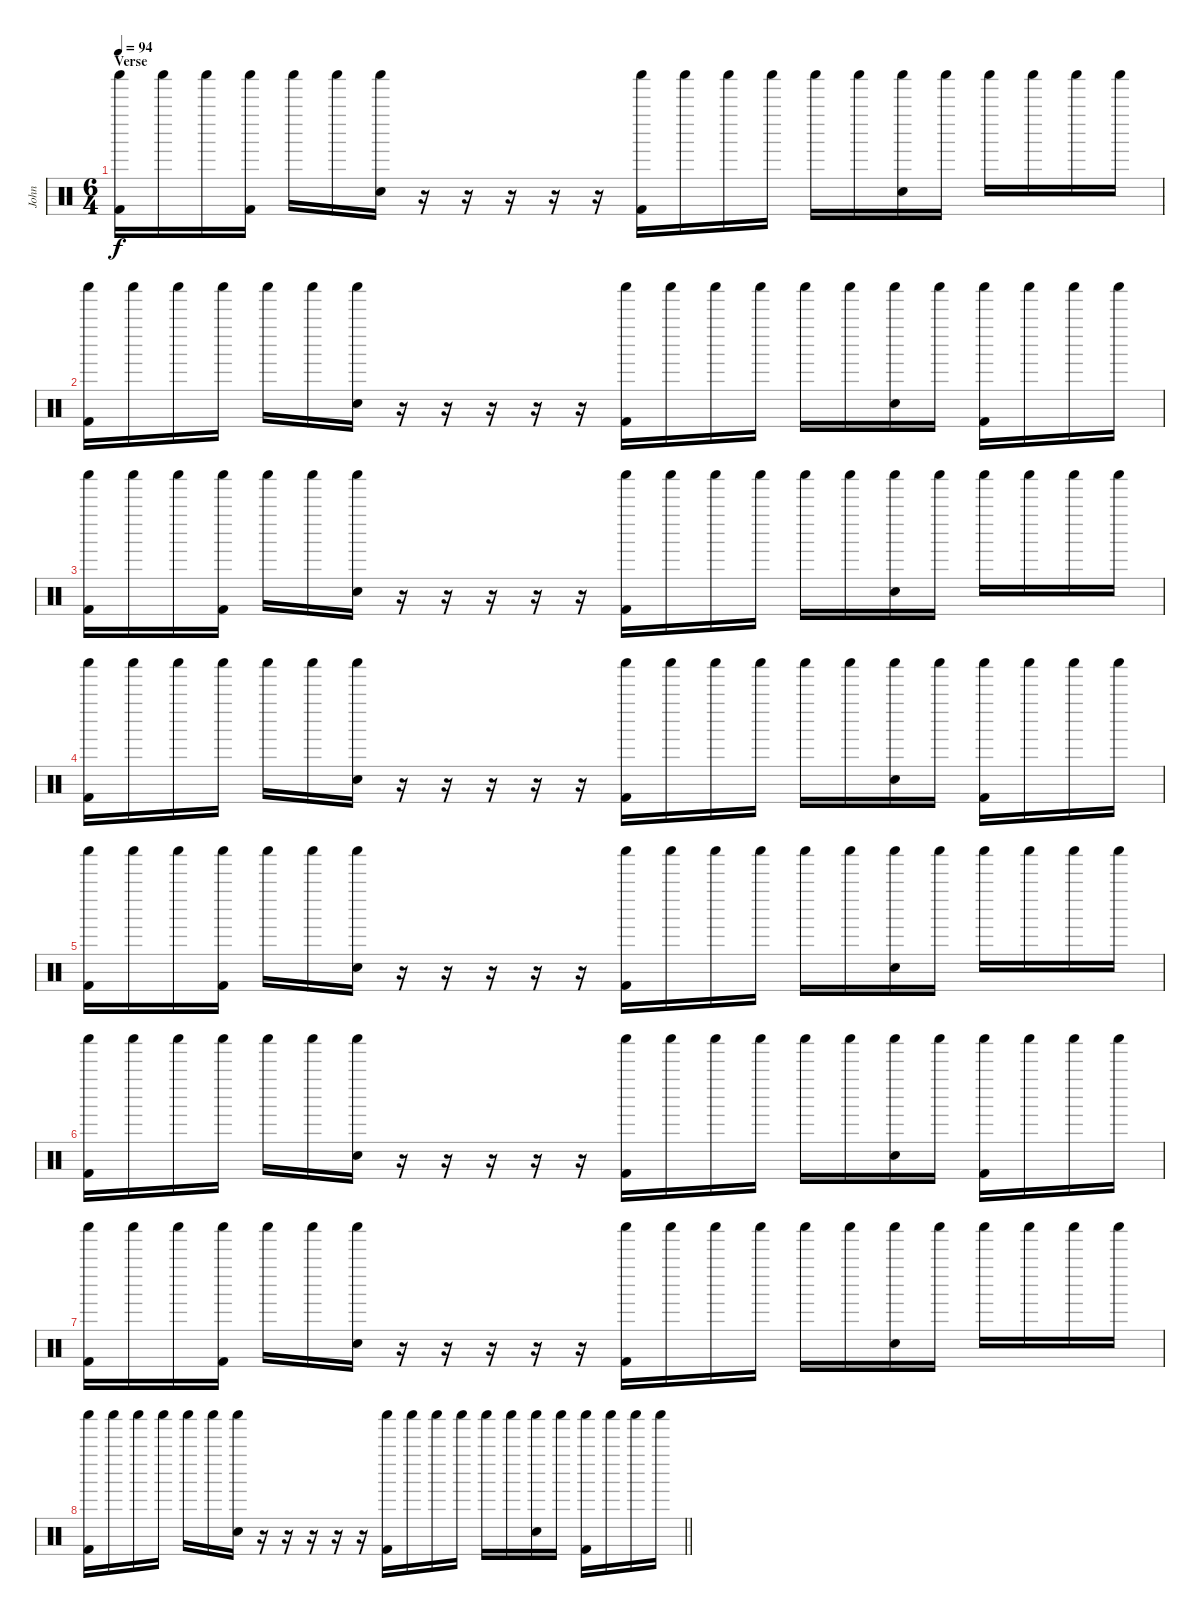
\track ("John" "John") {instrument percussion}
\staff {score}
\articulation defaults
\ts (6 4)
\section ("" "Verse")
\tempo 94
\clef neutral
\ks c
("Shaker (hit)" "Kick (hit) 2").16{dy f} "Shaker (hit)".16 "Shaker (hit)".16 ("Shaker (hit)" "Kick (hit) 2").16 "Shaker (hit)".16 "Shaker (hit)".16 ("Shaker (hit)" "Snare (hit) 2").16 r.16 r.16 r.16 r.16 r.16 ("Shaker (hit)" "Kick (hit) 2").16 "Shaker (hit)".16 "Shaker (hit)".16 "Shaker (hit)".16 "Shaker (hit)".16 "Shaker (hit)".16 ("Shaker (hit)" "Snare (hit) 2").16 "Shaker (hit)".16 "Shaker (hit)".16 "Shaker (hit)".16 "Shaker (hit)".16 "Shaker (hit)".16 |
("Shaker (hit)" "Kick (hit) 2").16 "Shaker (hit)".16 "Shaker (hit)".16 "Shaker (hit)".16 "Shaker (hit)".16 "Shaker (hit)".16 ("Shaker (hit)" "Snare (hit) 2").16 r.16 r.16 r.16 r.16 r.16 ("Shaker (hit)" "Kick (hit) 2").16 "Shaker (hit)".16 "Shaker (hit)".16 "Shaker (hit)".16 "Shaker (hit)".16 "Shaker (hit)".16 ("Shaker (hit)" "Snare (hit) 2").16 "Shaker (hit)".16 ("Shaker (hit)" "Kick (hit) 2").16 "Shaker (hit)".16 "Shaker (hit)".16 "Shaker (hit)".16 |
("Shaker (hit)" "Kick (hit) 2").16 "Shaker (hit)".16 "Shaker (hit)".16 ("Shaker (hit)" "Kick (hit) 2").16 "Shaker (hit)".16 "Shaker (hit)".16 ("Shaker (hit)" "Snare (hit) 2").16 r.16 r.16 r.16 r.16 r.16 ("Shaker (hit)" "Kick (hit) 2").16 "Shaker (hit)".16 "Shaker (hit)".16 "Shaker (hit)".16 "Shaker (hit)".16 "Shaker (hit)".16 ("Shaker (hit)" "Snare (hit) 2").16 "Shaker (hit)".16 "Shaker (hit)".16 "Shaker (hit)".16 "Shaker (hit)".16 "Shaker (hit)".16 |
("Shaker (hit)" "Kick (hit) 2").16 "Shaker (hit)".16 "Shaker (hit)".16 "Shaker (hit)".16 "Shaker (hit)".16 "Shaker (hit)".16 ("Shaker (hit)" "Snare (hit) 2").16 r.16 r.16 r.16 r.16 r.16 ("Shaker (hit)" "Kick (hit) 2").16 "Shaker (hit)".16 "Shaker (hit)".16 "Shaker (hit)".16 "Shaker (hit)".16 "Shaker (hit)".16 ("Shaker (hit)" "Snare (hit) 2").16 "Shaker (hit)".16 ("Shaker (hit)" "Kick (hit) 2").16 "Shaker (hit)".16 "Shaker (hit)".16 "Shaker (hit)".16 |
("Shaker (hit)" "Kick (hit) 2").16 "Shaker (hit)".16 "Shaker (hit)".16 ("Shaker (hit)" "Kick (hit) 2").16 "Shaker (hit)".16 "Shaker (hit)".16 ("Shaker (hit)" "Snare (hit) 2").16 r.16 r.16 r.16 r.16 r.16 ("Shaker (hit)" "Kick (hit) 2").16 "Shaker (hit)".16 "Shaker (hit)".16 "Shaker (hit)".16 "Shaker (hit)".16 "Shaker (hit)".16 ("Shaker (hit)" "Snare (hit) 2").16 "Shaker (hit)".16 "Shaker (hit)".16 "Shaker (hit)".16 "Shaker (hit)".16 "Shaker (hit)".16 |
("Shaker (hit)" "Kick (hit) 2").16 "Shaker (hit)".16 "Shaker (hit)".16 "Shaker (hit)".16 "Shaker (hit)".16 "Shaker (hit)".16 ("Shaker (hit)" "Snare (hit) 2").16 r.16 r.16 r.16 r.16 r.16 ("Shaker (hit)" "Kick (hit) 2").16 "Shaker (hit)".16 "Shaker (hit)".16 "Shaker (hit)".16 "Shaker (hit)".16 "Shaker (hit)".16 ("Shaker (hit)" "Snare (hit) 2").16 "Shaker (hit)".16 ("Shaker (hit)" "Kick (hit) 2").16 "Shaker (hit)".16 "Shaker (hit)".16 "Shaker (hit)".16 |
("Shaker (hit)" "Kick (hit) 2").16 "Shaker (hit)".16 "Shaker (hit)".16 ("Shaker (hit)" "Kick (hit) 2").16 "Shaker (hit)".16 "Shaker (hit)".16 ("Shaker (hit)" "Snare (hit) 2").16 r.16 r.16 r.16 r.16 r.16 ("Shaker (hit)" "Kick (hit) 2").16 "Shaker (hit)".16 "Shaker (hit)".16 "Shaker (hit)".16 "Shaker (hit)".16 "Shaker (hit)".16 ("Shaker (hit)" "Snare (hit) 2").16 "Shaker (hit)".16 "Shaker (hit)".16 "Shaker (hit)".16 "Shaker (hit)".16 "Shaker (hit)".16 |
\barLineRight lightlight
("Shaker (hit)" "Kick (hit) 2").16 "Shaker (hit)".16 "Shaker (hit)".16 "Shaker (hit)".16 "Shaker (hit)".16 "Shaker (hit)".16 ("Shaker (hit)" "Snare (hit) 2").16 r.16 r.16 r.16 r.16 r.16 ("Shaker (hit)" "Kick (hit) 2").16 "Shaker (hit)".16 "Shaker (hit)".16 "Shaker (hit)".16 "Shaker (hit)".16 "Shaker (hit)".16 ("Shaker (hit)" "Snare (hit) 2").16 "Shaker (hit)".16 ("Shaker (hit)" "Kick (hit) 2").16 "Shaker (hit)".16 "Shaker (hit)".16 "Shaker (hit)".16
